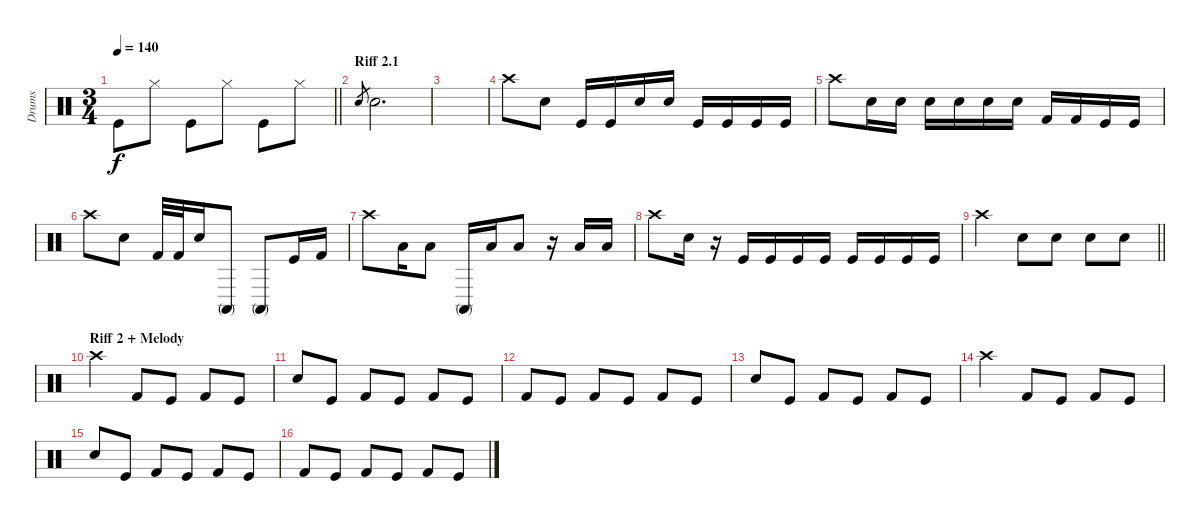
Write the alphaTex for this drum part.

\track ("Drums" "Drums") {instrument percussion}
\staff {score}
\articulation defaults
\ts (3 4)
\tempo 140
\clef neutral
\barLineRight lightlight
\ks c "Kick (hit)".8{dy f} "Hi-Hat (closed)".8 "Kick (hit)".8 "Hi-Hat (closed)".8 "Kick (hit)".8 "Hi-Hat (closed)".8
|
\section ("" "Riff 2.1")
"Snare (hit) 2".8{gr} "Snare (hit) 2".2{d} |
|
"Crash high (hit)".8 "Snare (hit) 2".8 "Kick (hit)".16 "Kick (hit)".16 "Electric Snare (hit)".16 "Electric Snare (hit)".16 "Kick (hit)".16 "Kick (hit)".16 "Kick (hit)".16 "Kick (hit)".16 |
"Crash high (hit)".8 "Snare (hit) 2".16 "Electric Snare (hit)".16 "Snare (hit) 2".16 "Electric Snare (hit)".16 "Snare (hit) 2".16 "Electric Snare (hit)".16 "Kick (hit) 2".16 "Kick (hit) 2".16 "Kick (hit)".16 "Kick (hit)".16 |
"Crash high (hit)".8 "Snare (hit) 2".8 "Kick (hit) 2".32 "Kick (hit) 2".32 "Electric Snare (hit)".16 "Conga high (mute)".8 "Conga high (mute)".8 "Kick (hit)".16 "Kick (hit) 2".16 |
"Crash high (hit)".8 "Low Tom (hit)".16 "Low Tom (hit)".8 "Conga high (mute)".16 "Low Tom (hit)".16 "Low Tom (hit)".8 r.16 "Low Tom (hit)".16 "Low Tom (hit)".16 |
"Crash high (hit)".8 "Snare (hit) 2".16 r.16 "Kick (hit)".16 "Kick (hit)".16 "Kick (hit)".16 "Kick (hit)".16 "Kick (hit)".16 "Kick (hit)".16 "Kick (hit)".16 "Kick (hit)".16 |
\barLineRight lightlight "Crash high (hit)".4 "Electric Snare (hit)".8 "Electric Snare (hit)".8 "Electric Snare (hit)".8 "Electric Snare (hit)".8
|
\section ("" "Riff 2 + Melody")
"Crash high (hit)".4 "Kick (hit) 2".8 "Kick (hit)".8 "Kick (hit) 2".8 "Kick (hit)".8 |
"Snare (hit) 2".8 "Kick (hit)".8 "Kick (hit) 2".8 "Kick (hit)".8 "Kick (hit) 2".8 "Kick (hit)".8 |
"Kick (hit) 2".8 "Kick (hit)".8 "Kick (hit) 2".8 "Kick (hit)".8 "Kick (hit) 2".8 "Kick (hit)".8 |
"Snare (hit) 2".8 "Kick (hit)".8 "Kick (hit) 2".8 "Kick (hit)".8 "Kick (hit) 2".8 "Kick (hit)".8 |
"Crash high (hit)".4 "Kick (hit) 2".8 "Kick (hit)".8 "Kick (hit) 2".8 "Kick (hit)".8 |
"Snare (hit) 2".8 "Kick (hit)".8 "Kick (hit) 2".8 "Kick (hit)".8 "Kick (hit) 2".8 "Kick (hit)".8 |
"Kick (hit) 2".8 "Kick (hit)".8 "Kick (hit) 2".8 "Kick (hit)".8 "Kick (hit) 2".8 "Kick (hit)".8
